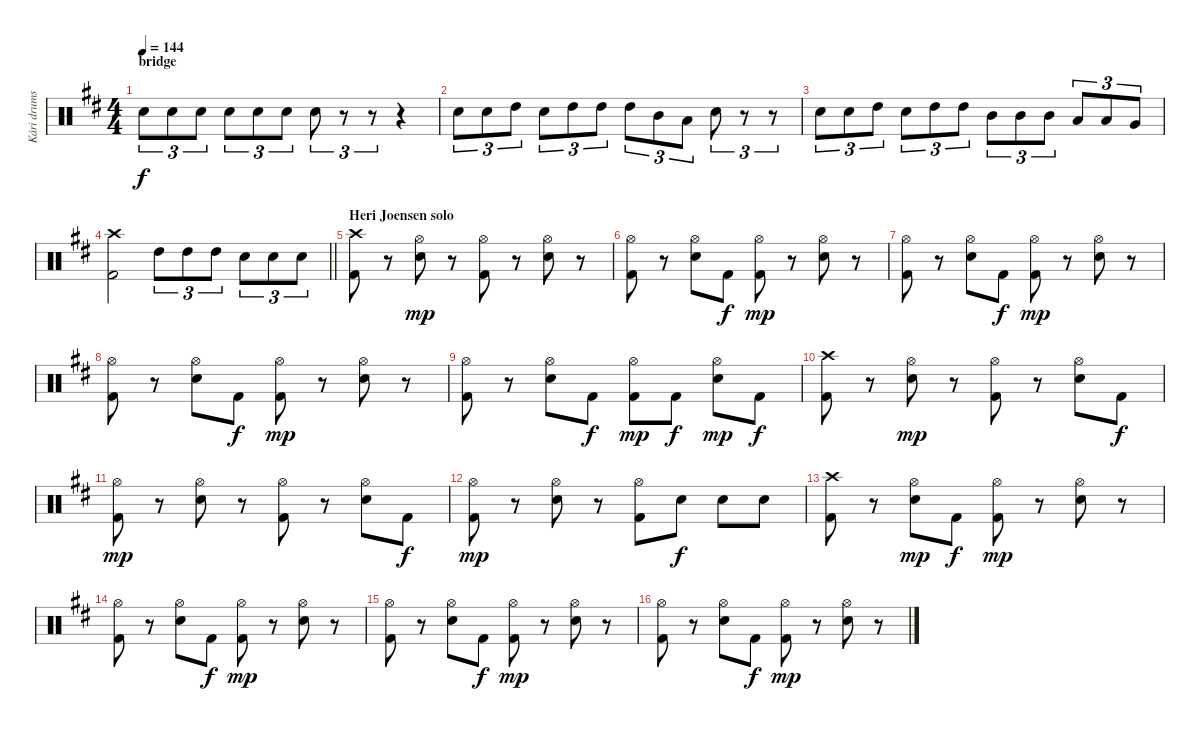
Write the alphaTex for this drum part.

\track ("Kári drums" "Kári drums") {instrument percussion}
\staff {score}
\articulation defaults
\ts (4 4)
\section ("" "bridge")
\tempo 144
\clef neutral
\ks bminor "Snare (hit) 2".8{tu (3 2) dy f} "Snare (hit) 2".8{tu (3 2)} "Snare (hit) 2".8{tu (3 2)} "Snare (hit) 2".8{tu (3 2)} "Snare (hit) 2".8{tu (3 2)} "Snare (hit) 2".8{tu (3 2)} "Snare (hit) 2".8{tu (3 2)}
r.8{tu (3 2)} r.8{tu (3 2)} r.4 |
"Snare (hit) 2".8{tu (3 2)} "Snare (hit) 2".8{tu (3 2)} "High Tom (hit)".8{tu (3 2)} "Snare (hit) 2".8{tu (3 2)} "High Tom (hit)".8{tu (3 2)} "High Tom (hit)".8{tu (3 2)} "High Tom (hit)".8{tu (3 2)} "Mid Tom (hit)".8{tu (3 2)} "Low Tom (hit)".8{tu (3 2)} "Snare (hit) 2".8{tu (3 2)} r.8{tu (3 2)} r.8{tu (3 2)} |
"Snare (hit) 2".8{tu (3 2)} "Snare (hit) 2".8{tu (3 2)} "High Tom (hit)".8{tu (3 2)} "Snare (hit) 2".8{tu (3 2)} "High Tom (hit)".8{tu (3 2)} "High Tom (hit)".8{tu (3 2)} "Mid Tom (hit)".8{tu (3 2)} "Mid Tom (hit)".8{tu (3 2)} "Mid Tom (hit)".8{tu (3 2)} "Low Tom (hit)".8{tu (3 2)} "Low Tom (hit)".8{tu (3 2)} "Very Low Tom (hit)".8{tu (3 2)} |
\barLineRight lightlight
("Crash high (hit)" "Kick (hit) 2").2 "High Tom (hit)".8{tu (3 2)} "High Tom (hit)".8{tu (3 2)} "High Tom (hit)".8{tu (3 2)} "Snare (hit) 2".8{tu (3 2)} "Snare (hit) 2".8{tu (3 2)} "Snare (hit) 2".8{tu (3 2)} |
\section ("" "Heri Joensen solo")
("Crash high (hit)" "Kick (hit) 2").8 r.8 ("Hi-Hat (open)" "Snare (hit) 2").8{dy mp} r.8 ("Hi-Hat (open)" "Kick (hit) 2").8 r.8 ("Hi-Hat (open)" "Snare (hit) 2").8 r.8 |
("Hi-Hat (open)" "Kick (hit) 2").8 r.8 ("Hi-Hat (open)" "Snare (hit) 2").8 "Kick (hit) 2".8{dy f} ("Hi-Hat (open)" "Kick (hit) 2").8{dy mp} r.8 ("Hi-Hat (open)" "Snare (hit) 2").8 r.8 |
("Hi-Hat (open)" "Kick (hit) 2").8 r.8 ("Hi-Hat (open)" "Snare (hit) 2").8 "Kick (hit) 2".8{dy f} ("Hi-Hat (open)" "Kick (hit) 2").8{dy mp} r.8 ("Hi-Hat (open)" "Snare (hit) 2").8 r.8 |
("Hi-Hat (open)" "Kick (hit) 2").8 r.8 ("Hi-Hat (open)" "Snare (hit) 2").8 "Kick (hit) 2".8{dy f} ("Hi-Hat (open)" "Kick (hit) 2").8{dy mp} r.8 ("Hi-Hat (open)" "Snare (hit) 2").8 r.8 |
("Hi-Hat (open)" "Kick (hit) 2").8 r.8 ("Hi-Hat (open)" "Snare (hit) 2").8 "Kick (hit) 2".8{dy f} ("Hi-Hat (open)" "Kick (hit) 2").8{dy mp} "Kick (hit) 2".8{dy f} ("Hi-Hat (open)" "Snare (hit) 2").8{dy mp} "Kick (hit) 2".8{dy f} |
("Crash high (hit)" "Kick (hit) 2").8 r.8 ("Hi-Hat (open)" "Snare (hit) 2").8{dy mp} r.8 ("Hi-Hat (open)" "Kick (hit) 2").8 r.8 ("Hi-Hat (open)" "Snare (hit) 2").8 "Kick (hit) 2".8{dy f} |
("Hi-Hat (open)" "Kick (hit) 2").8{dy mp} r.8 ("Hi-Hat (open)" "Snare (hit) 2").8 r.8 ("Hi-Hat (open)" "Kick (hit) 2").8 r.8 ("Hi-Hat (open)" "Snare (hit) 2").8 "Kick (hit) 2".8{dy f} |
("Hi-Hat (open)" "Kick (hit) 2").8{dy mp} r.8 ("Hi-Hat (open)" "Snare (hit) 2").8 r.8 ("Hi-Hat (open)" "Kick (hit) 2").8 "Snare (hit) 2".8{dy f} "Snare (hit) 2".8 "Snare (hit) 2".8 |
("Crash high (hit)" "Kick (hit) 2").8 r.8 ("Hi-Hat (open)" "Snare (hit) 2").8{dy mp} "Kick (hit) 2".8{dy f} ("Hi-Hat (open)" "Kick (hit) 2").8{dy mp} r.8 ("Hi-Hat (open)" "Snare (hit) 2").8 r.8 |
("Hi-Hat (open)" "Kick (hit) 2").8 r.8 ("Hi-Hat (open)" "Snare (hit) 2").8 "Kick (hit) 2".8{dy f} ("Hi-Hat (open)" "Kick (hit) 2").8{dy mp} r.8 ("Hi-Hat (open)" "Snare (hit) 2").8 r.8 |
("Hi-Hat (open)" "Kick (hit) 2").8 r.8 ("Hi-Hat (open)" "Snare (hit) 2").8 "Kick (hit) 2".8{dy f} ("Hi-Hat (open)" "Kick (hit) 2").8{dy mp} r.8 ("Hi-Hat (open)" "Snare (hit) 2").8 r.8 |
("Hi-Hat (open)" "Kick (hit) 2").8 r.8 ("Hi-Hat (open)" "Snare (hit) 2").8 "Kick (hit) 2".8{dy f} ("Hi-Hat (open)" "Kick (hit) 2").8{dy mp} r.8 ("Hi-Hat (open)" "Snare (hit) 2").8 r.8
